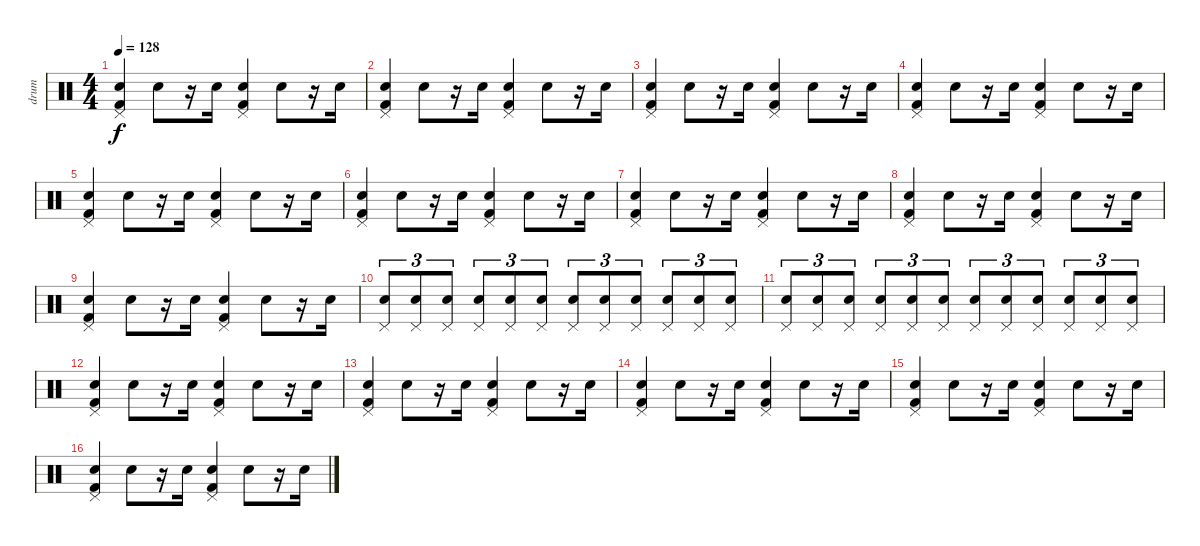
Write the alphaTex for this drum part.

\track ("drum" "drum") {instrument percussion}
\staff {score}
\articulation defaults
\ts (4 4)
\tempo 128
\clef neutral
\ks c
("Pedal Hi-Hat (hit)" "Kick (hit) 2" "Electric Snare (hit)").4{dy f} "Electric Snare (hit)".8 r.16 "Electric Snare (hit)".16 ("Pedal Hi-Hat (hit)" "Kick (hit) 2" "Electric Snare (hit)").4 "Electric Snare (hit)".8 r.16 "Electric Snare (hit)".16 |
("Pedal Hi-Hat (hit)" "Kick (hit) 2" "Electric Snare (hit)").4 "Electric Snare (hit)".8 r.16 "Electric Snare (hit)".16 ("Pedal Hi-Hat (hit)" "Kick (hit) 2" "Electric Snare (hit)").4 "Electric Snare (hit)".8 r.16 "Electric Snare (hit)".16 |
("Pedal Hi-Hat (hit)" "Kick (hit) 2" "Electric Snare (hit)").4 "Electric Snare (hit)".8 r.16 "Electric Snare (hit)".16 ("Pedal Hi-Hat (hit)" "Kick (hit) 2" "Electric Snare (hit)").4 "Electric Snare (hit)".8 r.16 "Electric Snare (hit)".16 |
("Pedal Hi-Hat (hit)" "Kick (hit) 2" "Electric Snare (hit)").4 "Electric Snare (hit)".8 r.16 "Electric Snare (hit)".16 ("Pedal Hi-Hat (hit)" "Kick (hit) 2" "Electric Snare (hit)").4 "Electric Snare (hit)".8 r.16 "Electric Snare (hit)".16 |
("Pedal Hi-Hat (hit)" "Kick (hit) 2" "Electric Snare (hit)").4 "Electric Snare (hit)".8 r.16 "Electric Snare (hit)".16 ("Pedal Hi-Hat (hit)" "Kick (hit) 2" "Electric Snare (hit)").4 "Electric Snare (hit)".8 r.16 "Electric Snare (hit)".16 |
("Pedal Hi-Hat (hit)" "Kick (hit) 2" "Electric Snare (hit)").4 "Electric Snare (hit)".8 r.16 "Electric Snare (hit)".16 ("Pedal Hi-Hat (hit)" "Kick (hit) 2" "Electric Snare (hit)").4 "Electric Snare (hit)".8 r.16 "Electric Snare (hit)".16 |
("Pedal Hi-Hat (hit)" "Kick (hit) 2" "Electric Snare (hit)").4 "Electric Snare (hit)".8 r.16 "Electric Snare (hit)".16 ("Pedal Hi-Hat (hit)" "Kick (hit) 2" "Electric Snare (hit)").4 "Electric Snare (hit)".8 r.16 "Electric Snare (hit)".16 |
("Pedal Hi-Hat (hit)" "Kick (hit) 2" "Electric Snare (hit)").4 "Electric Snare (hit)".8 r.16 "Electric Snare (hit)".16 ("Pedal Hi-Hat (hit)" "Kick (hit) 2" "Electric Snare (hit)").4 "Electric Snare (hit)".8 r.16 "Electric Snare (hit)".16 |
("Pedal Hi-Hat (hit)" "Kick (hit) 2" "Electric Snare (hit)").4 "Electric Snare (hit)".8 r.16 "Electric Snare (hit)".16 ("Pedal Hi-Hat (hit)" "Kick (hit) 2" "Electric Snare (hit)").4 "Electric Snare (hit)".8 r.16 "Electric Snare (hit)".16 |
("Pedal Hi-Hat (hit)" "Electric Snare (hit)").8{tu (3 2)} ("Pedal Hi-Hat (hit)" "Electric Snare (hit)").8{tu (3 2)} ("Pedal Hi-Hat (hit)" "Electric Snare (hit)").8{tu (3 2)} ("Pedal Hi-Hat (hit)" "Electric Snare (hit)").8{tu (3 2)} ("Pedal Hi-Hat (hit)" "Electric Snare (hit)").8{tu (3 2)} ("Pedal Hi-Hat (hit)" "Electric Snare (hit)").8{tu (3 2)} ("Pedal Hi-Hat (hit)" "Electric Snare (hit)").8{tu (3 2)} ("Pedal Hi-Hat (hit)" "Electric Snare (hit)").8{tu (3 2)} ("Pedal Hi-Hat (hit)" "Electric Snare (hit)").8{tu (3 2)} ("Pedal Hi-Hat (hit)" "Electric Snare (hit)").8{tu (3 2)} ("Pedal Hi-Hat (hit)" "Electric Snare (hit)").8{tu (3 2)} ("Pedal Hi-Hat (hit)" "Electric Snare (hit)").8{tu (3 2)} |
("Pedal Hi-Hat (hit)" "Electric Snare (hit)").8{tu (3 2)} ("Pedal Hi-Hat (hit)" "Electric Snare (hit)").8{tu (3 2)} ("Pedal Hi-Hat (hit)" "Electric Snare (hit)").8{tu (3 2)} ("Pedal Hi-Hat (hit)" "Electric Snare (hit)").8{tu (3 2)} ("Pedal Hi-Hat (hit)" "Electric Snare (hit)").8{tu (3 2)} ("Pedal Hi-Hat (hit)" "Electric Snare (hit)").8{tu (3 2)} ("Pedal Hi-Hat (hit)" "Electric Snare (hit)").8{tu (3 2)} ("Pedal Hi-Hat (hit)" "Electric Snare (hit)").8{tu (3 2)} ("Pedal Hi-Hat (hit)" "Electric Snare (hit)").8{tu (3 2)} ("Pedal Hi-Hat (hit)" "Electric Snare (hit)").8{tu (3 2)} ("Pedal Hi-Hat (hit)" "Electric Snare (hit)").8{tu (3 2)} ("Pedal Hi-Hat (hit)" "Electric Snare (hit)").8{tu (3 2)} |
("Pedal Hi-Hat (hit)" "Kick (hit) 2" "Electric Snare (hit)").4 "Electric Snare (hit)".8 r.16 "Electric Snare (hit)".16 ("Pedal Hi-Hat (hit)" "Kick (hit) 2" "Electric Snare (hit)").4 "Electric Snare (hit)".8 r.16 "Electric Snare (hit)".16 |
("Pedal Hi-Hat (hit)" "Kick (hit) 2" "Electric Snare (hit)").4 "Electric Snare (hit)".8 r.16 "Electric Snare (hit)".16 ("Pedal Hi-Hat (hit)" "Kick (hit) 2" "Electric Snare (hit)").4 "Electric Snare (hit)".8 r.16 "Electric Snare (hit)".16 |
("Pedal Hi-Hat (hit)" "Kick (hit) 2" "Electric Snare (hit)").4 "Electric Snare (hit)".8 r.16 "Electric Snare (hit)".16 ("Pedal Hi-Hat (hit)" "Kick (hit) 2" "Electric Snare (hit)").4 "Electric Snare (hit)".8 r.16 "Electric Snare (hit)".16 |
("Pedal Hi-Hat (hit)" "Kick (hit) 2" "Electric Snare (hit)").4 "Electric Snare (hit)".8 r.16 "Electric Snare (hit)".16 ("Pedal Hi-Hat (hit)" "Kick (hit) 2" "Electric Snare (hit)").4 "Electric Snare (hit)".8 r.16 "Electric Snare (hit)".16 |
("Pedal Hi-Hat (hit)" "Kick (hit) 2" "Electric Snare (hit)").4 "Electric Snare (hit)".8 r.16 "Electric Snare (hit)".16 ("Pedal Hi-Hat (hit)" "Kick (hit) 2" "Electric Snare (hit)").4 "Electric Snare (hit)".8 r.16 "Electric Snare (hit)".16
